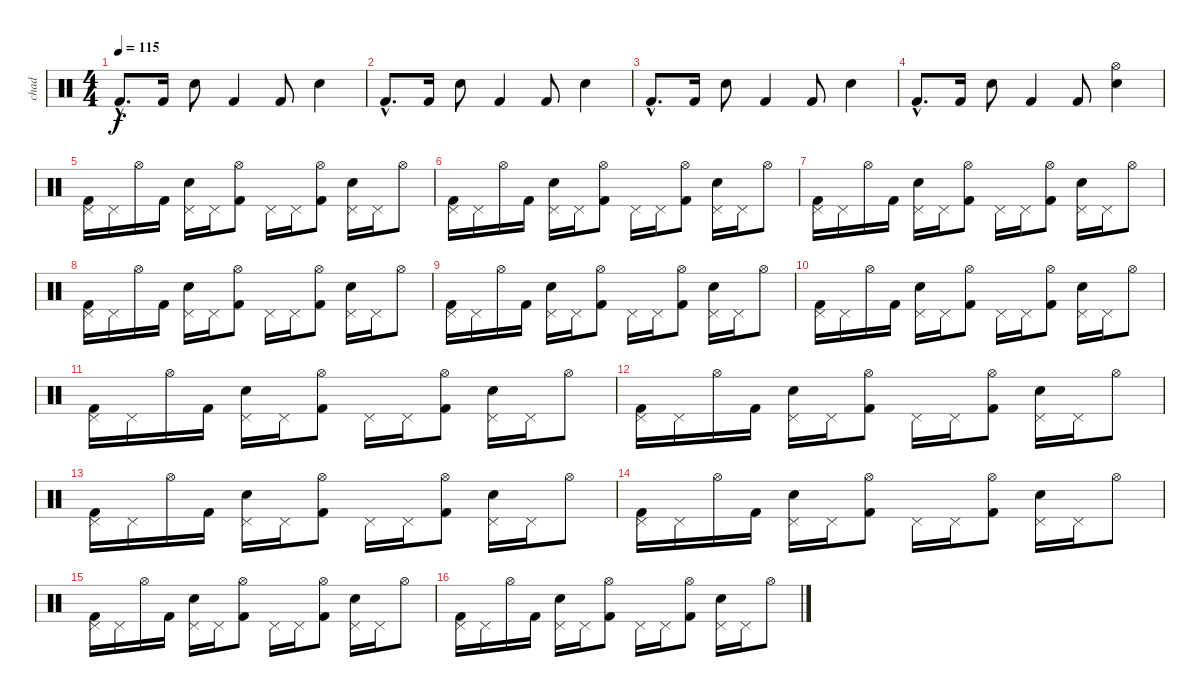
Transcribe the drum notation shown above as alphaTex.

\track ("chad" "chad") {instrument percussion}
\staff {score}
\articulation defaults
\ts (4 4)
\tempo 115
\clef neutral
\ks c "Kick (hit) 2"{hac}.8{d dy f} "Kick (hit) 2".16 "Electric Snare (hit)".8 "Kick (hit) 2".4 "Kick (hit) 2".8 "Electric Snare (hit)".4
|
"Kick (hit) 2"{hac}.8{d} "Kick (hit) 2".16 "Electric Snare (hit)".8 "Kick (hit) 2".4 "Kick (hit) 2".8 "Electric Snare (hit)".4 |
"Kick (hit) 2"{hac}.8{d} "Kick (hit) 2".16 "Electric Snare (hit)".8 "Kick (hit) 2".4 "Kick (hit) 2".8 "Electric Snare (hit)".4 |
"Kick (hit) 2"{hac}.8{d} "Kick (hit) 2".16 "Electric Snare (hit)".8 "Kick (hit) 2".4 "Kick (hit) 2".8 ("Hi-Hat (open)" "Electric Snare (hit)").4 |
("Pedal Hi-Hat (hit)" "Kick (hit) 2").16 "Pedal Hi-Hat (hit)".16 "Hi-Hat (open)".16 "Kick (hit) 2".16 ("Pedal Hi-Hat (hit)" "Electric Snare (hit)").16 "Pedal Hi-Hat (hit)".16 ("Hi-Hat (open)" "Kick (hit) 2").8 "Pedal Hi-Hat (hit)".16 "Pedal Hi-Hat (hit)".16 ("Hi-Hat (open)" "Kick (hit) 2").8 ("Pedal Hi-Hat (hit)" "Electric Snare (hit)").16 "Pedal Hi-Hat (hit)".16 "Hi-Hat (open)".8 |
("Pedal Hi-Hat (hit)" "Kick (hit) 2").16 "Pedal Hi-Hat (hit)".16 "Hi-Hat (open)".16 "Kick (hit) 2".16 ("Pedal Hi-Hat (hit)" "Electric Snare (hit)").16 "Pedal Hi-Hat (hit)".16 ("Hi-Hat (open)" "Kick (hit) 2").8 "Pedal Hi-Hat (hit)".16 "Pedal Hi-Hat (hit)".16 ("Hi-Hat (open)" "Kick (hit) 2").8 ("Pedal Hi-Hat (hit)" "Electric Snare (hit)").16 "Pedal Hi-Hat (hit)".16 "Hi-Hat (open)".8 |
("Pedal Hi-Hat (hit)" "Kick (hit) 2").16 "Pedal Hi-Hat (hit)".16 "Hi-Hat (open)".16 "Kick (hit) 2".16 ("Pedal Hi-Hat (hit)" "Electric Snare (hit)").16 "Pedal Hi-Hat (hit)".16 ("Hi-Hat (open)" "Kick (hit) 2").8 "Pedal Hi-Hat (hit)".16 "Pedal Hi-Hat (hit)".16 ("Hi-Hat (open)" "Kick (hit) 2").8 ("Pedal Hi-Hat (hit)" "Electric Snare (hit)").16 "Pedal Hi-Hat (hit)".16 "Hi-Hat (open)".8 |
("Pedal Hi-Hat (hit)" "Kick (hit) 2").16 "Pedal Hi-Hat (hit)".16 "Hi-Hat (open)".16 "Kick (hit) 2".16 ("Pedal Hi-Hat (hit)" "Electric Snare (hit)").16 "Pedal Hi-Hat (hit)".16 ("Hi-Hat (open)" "Kick (hit) 2").8 "Pedal Hi-Hat (hit)".16 "Pedal Hi-Hat (hit)".16 ("Hi-Hat (open)" "Kick (hit) 2").8 ("Pedal Hi-Hat (hit)" "Electric Snare (hit)").16 "Pedal Hi-Hat (hit)".16 "Hi-Hat (open)".8 |
("Pedal Hi-Hat (hit)" "Kick (hit) 2").16 "Pedal Hi-Hat (hit)".16 "Hi-Hat (open)".16 "Kick (hit) 2".16 ("Pedal Hi-Hat (hit)" "Electric Snare (hit)").16 "Pedal Hi-Hat (hit)".16 ("Hi-Hat (open)" "Kick (hit) 2").8 "Pedal Hi-Hat (hit)".16 "Pedal Hi-Hat (hit)".16 ("Hi-Hat (open)" "Kick (hit) 2").8 ("Pedal Hi-Hat (hit)" "Electric Snare (hit)").16 "Pedal Hi-Hat (hit)".16 "Hi-Hat (open)".8 |
("Pedal Hi-Hat (hit)" "Kick (hit) 2").16 "Pedal Hi-Hat (hit)".16 "Hi-Hat (open)".16 "Kick (hit) 2".16 ("Pedal Hi-Hat (hit)" "Electric Snare (hit)").16 "Pedal Hi-Hat (hit)".16 ("Hi-Hat (open)" "Kick (hit) 2").8 "Pedal Hi-Hat (hit)".16 "Pedal Hi-Hat (hit)".16 ("Hi-Hat (open)" "Kick (hit) 2").8 ("Pedal Hi-Hat (hit)" "Electric Snare (hit)").16 "Pedal Hi-Hat (hit)".16 "Hi-Hat (open)".8 |
("Pedal Hi-Hat (hit)" "Kick (hit) 2").16 "Pedal Hi-Hat (hit)".16 "Hi-Hat (open)".16 "Kick (hit) 2".16 ("Pedal Hi-Hat (hit)" "Electric Snare (hit)").16 "Pedal Hi-Hat (hit)".16 ("Hi-Hat (open)" "Kick (hit) 2").8 "Pedal Hi-Hat (hit)".16 "Pedal Hi-Hat (hit)".16 ("Hi-Hat (open)" "Kick (hit) 2").8 ("Pedal Hi-Hat (hit)" "Electric Snare (hit)").16 "Pedal Hi-Hat (hit)".16 "Hi-Hat (open)".8 |
("Pedal Hi-Hat (hit)" "Kick (hit) 2").16 "Pedal Hi-Hat (hit)".16 "Hi-Hat (open)".16 "Kick (hit) 2".16 ("Pedal Hi-Hat (hit)" "Electric Snare (hit)").16 "Pedal Hi-Hat (hit)".16 ("Hi-Hat (open)" "Kick (hit) 2").8 "Pedal Hi-Hat (hit)".16 "Pedal Hi-Hat (hit)".16 ("Hi-Hat (open)" "Kick (hit) 2").8 ("Pedal Hi-Hat (hit)" "Electric Snare (hit)").16 "Pedal Hi-Hat (hit)".16 "Hi-Hat (open)".8 |
("Pedal Hi-Hat (hit)" "Kick (hit) 2").16 "Pedal Hi-Hat (hit)".16 "Hi-Hat (open)".16 "Kick (hit) 2".16 ("Pedal Hi-Hat (hit)" "Electric Snare (hit)").16 "Pedal Hi-Hat (hit)".16 ("Hi-Hat (open)" "Kick (hit) 2").8 "Pedal Hi-Hat (hit)".16 "Pedal Hi-Hat (hit)".16 ("Hi-Hat (open)" "Kick (hit) 2").8 ("Pedal Hi-Hat (hit)" "Electric Snare (hit)").16 "Pedal Hi-Hat (hit)".16 "Hi-Hat (open)".8 |
("Pedal Hi-Hat (hit)" "Kick (hit) 2").16 "Pedal Hi-Hat (hit)".16 "Hi-Hat (open)".16 "Kick (hit) 2".16 ("Pedal Hi-Hat (hit)" "Electric Snare (hit)").16 "Pedal Hi-Hat (hit)".16 ("Hi-Hat (open)" "Kick (hit) 2").8 "Pedal Hi-Hat (hit)".16 "Pedal Hi-Hat (hit)".16 ("Hi-Hat (open)" "Kick (hit) 2").8 ("Pedal Hi-Hat (hit)" "Electric Snare (hit)").16 "Pedal Hi-Hat (hit)".16 "Hi-Hat (open)".8 |
("Pedal Hi-Hat (hit)" "Kick (hit) 2").16 "Pedal Hi-Hat (hit)".16 "Hi-Hat (open)".16 "Kick (hit) 2".16 ("Pedal Hi-Hat (hit)" "Electric Snare (hit)").16 "Pedal Hi-Hat (hit)".16 ("Hi-Hat (open)" "Kick (hit) 2").8 "Pedal Hi-Hat (hit)".16 "Pedal Hi-Hat (hit)".16 ("Hi-Hat (open)" "Kick (hit) 2").8 ("Pedal Hi-Hat (hit)" "Electric Snare (hit)").16 "Pedal Hi-Hat (hit)".16 "Hi-Hat (open)".8 |
("Pedal Hi-Hat (hit)" "Kick (hit) 2").16 "Pedal Hi-Hat (hit)".16 "Hi-Hat (open)".16 "Kick (hit) 2".16 ("Pedal Hi-Hat (hit)" "Electric Snare (hit)").16 "Pedal Hi-Hat (hit)".16 ("Hi-Hat (open)" "Kick (hit) 2").8 "Pedal Hi-Hat (hit)".16 "Pedal Hi-Hat (hit)".16 ("Hi-Hat (open)" "Kick (hit) 2").8 ("Pedal Hi-Hat (hit)" "Electric Snare (hit)").16 "Pedal Hi-Hat (hit)".16 "Hi-Hat (open)".8
